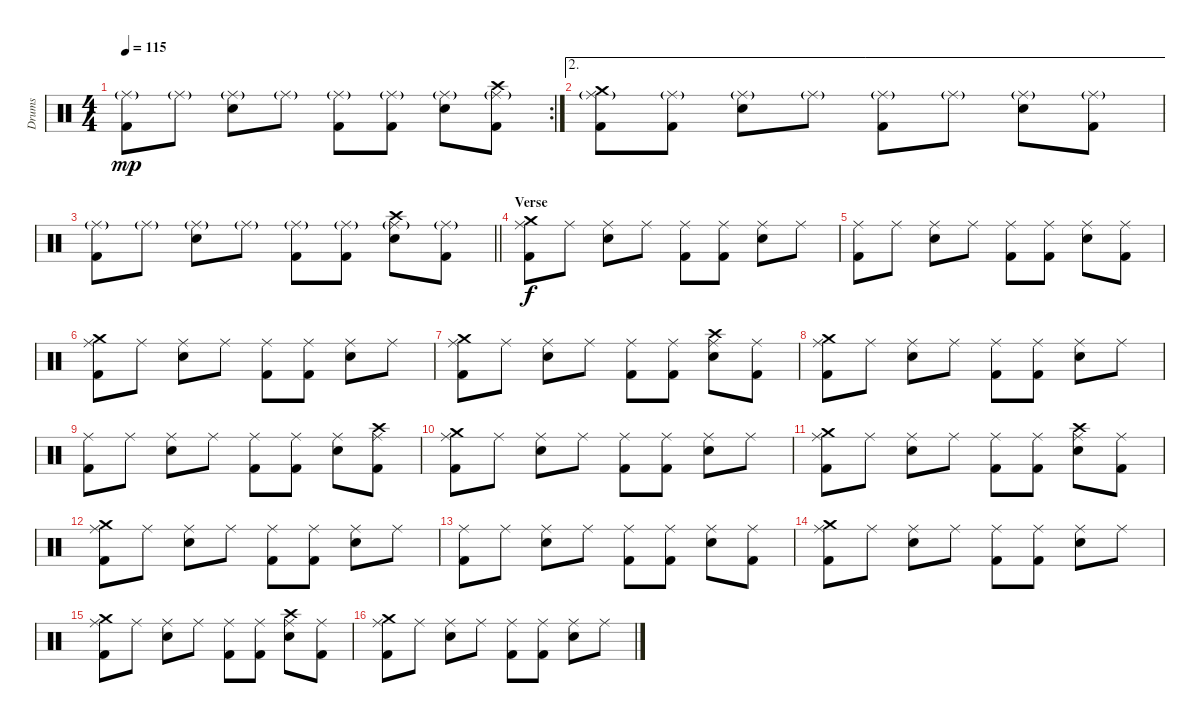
\track ("Drums" "Drums") {instrument percussion}
\staff {score}
\articulation defaults
\rc 2
\ts (4 4)
\tempo 115
\clef neutral
\ks c
("Ride (middle)"{g} "Kick (hit) 2").8{dy mp} "Ride (middle)"{g}.8 ("Ride (middle)"{g} "Snare (hit) 2").8 "Ride (middle)"{g}.8 ("Ride (middle)"{g} "Kick (hit) 2").8 ("Ride (middle)"{g} "Kick (hit) 2").8 ("Ride (middle)"{g} "Snare (hit) 2").8 ("Crash high (hit)" "Ride (middle)"{g} "Kick (hit) 2").8 |
\ae 2
("Crash medium (hit)" "Ride (middle)"{g} "Kick (hit) 2").8 ("Ride (middle)"{g} "Kick (hit) 2").8 ("Ride (middle)"{g} "Snare (hit) 2").8 "Ride (middle)"{g}.8 ("Ride (middle)"{g} "Kick (hit) 2").8 "Ride (middle)"{g}.8 ("Ride (middle)"{g} "Snare (hit) 2").8 ("Ride (middle)"{g} "Kick (hit) 2").8 |
\barLineRight lightlight
("Ride (middle)"{g} "Kick (hit) 2").8 "Ride (middle)"{g}.8 ("Ride (middle)"{g} "Snare (hit) 2").8 "Ride (middle)"{g}.8 ("Ride (middle)"{g} "Kick (hit) 2").8 ("Ride (middle)"{g} "Kick (hit) 2").8 ("Crash high (hit)" "Ride (middle)"{g} "Snare (hit) 2").8 ("Ride (middle)"{g} "Kick (hit) 2").8 |
\section ("" "Verse")
("Crash medium (hit)" "Ride (middle)" "Kick (hit) 2").8{dy f} "Ride (middle)".8 ("Ride (middle)" "Snare (hit) 2").8 "Ride (middle)".8 ("Ride (middle)" "Kick (hit) 2").8 ("Ride (middle)" "Kick (hit) 2").8 ("Ride (middle)" "Snare (hit) 2").8 "Ride (middle)".8 |
("Ride (middle)" "Kick (hit) 2").8 "Ride (middle)".8 ("Ride (middle)" "Snare (hit) 2").8 "Ride (middle)".8 ("Ride (middle)" "Kick (hit) 2").8 ("Ride (middle)" "Kick (hit) 2").8 ("Ride (middle)" "Snare (hit) 2").8 ("Ride (middle)" "Kick (hit) 2").8 |
("Crash medium (hit)" "Ride (middle)" "Kick (hit) 2").8 "Ride (middle)".8 ("Ride (middle)" "Snare (hit) 2").8 "Ride (middle)".8 ("Ride (middle)" "Kick (hit) 2").8 ("Ride (middle)" "Kick (hit) 2").8 ("Ride (middle)" "Snare (hit) 2").8 "Ride (middle)".8 |
("Crash medium (hit)" "Ride (middle)" "Kick (hit) 2").8 "Ride (middle)".8 ("Ride (middle)" "Snare (hit) 2").8 "Ride (middle)".8 ("Ride (middle)" "Kick (hit) 2").8 ("Ride (middle)" "Kick (hit) 2").8 ("Crash high (hit)" "Ride (middle)" "Snare (hit) 2").8 ("Ride (middle)" "Kick (hit) 2").8 |
("Crash medium (hit)" "Ride (middle)" "Kick (hit) 2").8 "Ride (middle)".8 ("Ride (middle)" "Snare (hit) 2").8 "Ride (middle)".8 ("Ride (middle)" "Kick (hit) 2").8 ("Ride (middle)" "Kick (hit) 2").8 ("Ride (middle)" "Snare (hit) 2").8 "Ride (middle)".8 |
("Ride (middle)" "Kick (hit) 2").8 "Ride (middle)".8 ("Ride (middle)" "Snare (hit) 2").8 "Ride (middle)".8 ("Ride (middle)" "Kick (hit) 2").8 ("Ride (middle)" "Kick (hit) 2").8 ("Ride (middle)" "Snare (hit) 2").8 ("Crash high (hit)" "Ride (middle)" "Kick (hit) 2").8 |
("Crash medium (hit)" "Ride (middle)" "Kick (hit) 2").8 "Ride (middle)".8 ("Ride (middle)" "Snare (hit) 2").8 "Ride (middle)".8 ("Ride (middle)" "Kick (hit) 2").8 ("Ride (middle)" "Kick (hit) 2").8 ("Ride (middle)" "Snare (hit) 2").8 "Ride (middle)".8 |
("Crash medium (hit)" "Ride (middle)" "Kick (hit) 2").8 "Ride (middle)".8 ("Ride (middle)" "Snare (hit) 2").8 "Ride (middle)".8 ("Ride (middle)" "Kick (hit) 2").8 ("Ride (middle)" "Kick (hit) 2").8 ("Crash high (hit)" "Ride (middle)" "Snare (hit) 2").8 ("Ride (middle)" "Kick (hit) 2").8 |
("Crash medium (hit)" "Ride (middle)" "Kick (hit) 2").8 "Ride (middle)".8 ("Ride (middle)" "Snare (hit) 2").8 "Ride (middle)".8 ("Ride (middle)" "Kick (hit) 2").8 ("Ride (middle)" "Kick (hit) 2").8 ("Ride (middle)" "Snare (hit) 2").8 "Ride (middle)".8 |
("Ride (middle)" "Kick (hit) 2").8 "Ride (middle)".8 ("Ride (middle)" "Snare (hit) 2").8 "Ride (middle)".8 ("Ride (middle)" "Kick (hit) 2").8 ("Ride (middle)" "Kick (hit) 2").8 ("Ride (middle)" "Snare (hit) 2").8 ("Ride (middle)" "Kick (hit) 2").8 |
("Crash medium (hit)" "Ride (middle)" "Kick (hit) 2").8 "Ride (middle)".8 ("Ride (middle)" "Snare (hit) 2").8 "Ride (middle)".8 ("Ride (middle)" "Kick (hit) 2").8 ("Ride (middle)" "Kick (hit) 2").8 ("Ride (middle)" "Snare (hit) 2").8 "Ride (middle)".8 |
("Crash medium (hit)" "Ride (middle)" "Kick (hit) 2").8 "Ride (middle)".8 ("Ride (middle)" "Snare (hit) 2").8 "Ride (middle)".8 ("Ride (middle)" "Kick (hit) 2").8 ("Ride (middle)" "Kick (hit) 2").8 ("Crash high (hit)" "Ride (middle)" "Snare (hit) 2").8 ("Ride (middle)" "Kick (hit) 2").8 |
("Crash medium (hit)" "Ride (middle)" "Kick (hit) 2").8 "Ride (middle)".8 ("Ride (middle)" "Snare (hit) 2").8 "Ride (middle)".8 ("Ride (middle)" "Kick (hit) 2").8 ("Ride (middle)" "Kick (hit) 2").8 ("Ride (middle)" "Snare (hit) 2").8 "Ride (middle)".8
